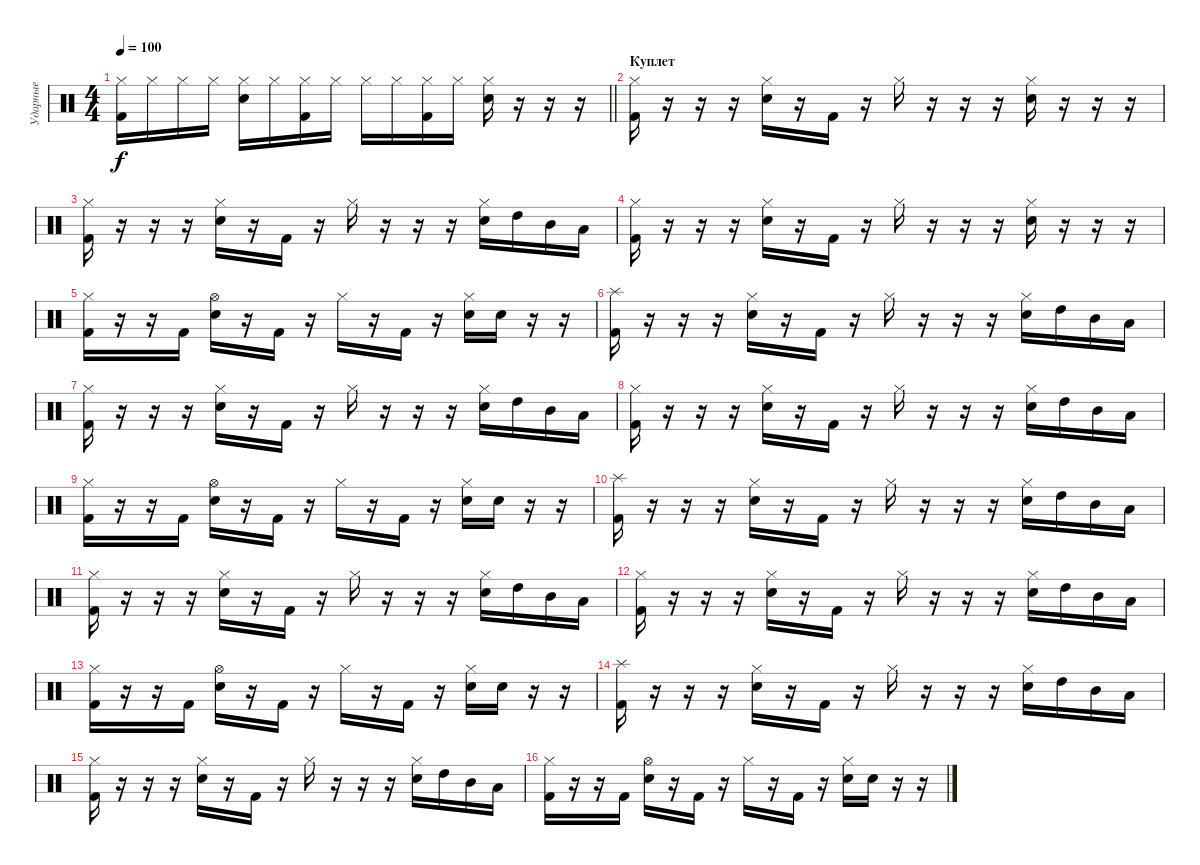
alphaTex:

\track ("Ударные" "Ударные") {instrument percussion}
\staff {score}
\articulation defaults
\ts (4 4)
\tempo 100
\clef neutral
\barLineRight lightlight
\ks c
("Hi-Hat (closed)" "Kick (hit) 2").16{dy f} "Hi-Hat (closed)".16 "Hi-Hat (closed)".16 "Hi-Hat (closed)".16 ("Hi-Hat (closed)" "Electric Snare (hit)").16 "Hi-Hat (closed)".16 ("Hi-Hat (closed)" "Kick (hit) 2").16 "Hi-Hat (closed)".16 "Hi-Hat (closed)".16 "Hi-Hat (closed)".16 ("Hi-Hat (closed)" "Kick (hit) 2").16 "Hi-Hat (closed)".16 ("Hi-Hat (closed)" "Electric Snare (hit)").16 r.16 r.16 r.16 |
\section ("" "Куплет")
("Hi-Hat (closed)" "Kick (hit) 2").16 r.16 r.16 r.16 ("Hi-Hat (closed)" "Electric Snare (hit)").16 r.16 "Kick (hit) 2".16 r.16 "Hi-Hat (closed)".16 r.16 r.16 r.16 ("Hi-Hat (closed)" "Electric Snare (hit)").16 r.16 r.16 r.16 |
("Hi-Hat (closed)" "Kick (hit) 2").16 r.16 r.16 r.16 ("Hi-Hat (closed)" "Electric Snare (hit)").16 r.16 "Kick (hit) 2".16 r.16 "Hi-Hat (closed)".16 r.16 r.16 r.16 ("Hi-Hat (closed)" "Electric Snare (hit)").16 "High Tom (hit)".16 "Mid Tom (hit)".16 "Low Tom (hit)".16 |
("Hi-Hat (closed)" "Kick (hit) 2").16 r.16 r.16 r.16 ("Hi-Hat (closed)" "Electric Snare (hit)").16 r.16 "Kick (hit) 2".16 r.16 "Hi-Hat (closed)".16 r.16 r.16 r.16 ("Hi-Hat (closed)" "Electric Snare (hit)").16 r.16 r.16 r.16 |
("Hi-Hat (closed)" "Kick (hit) 2").16 r.16 r.16 "Kick (hit) 2".16 ("Hi-Hat (open)" "Electric Snare (hit)").16 r.16 "Kick (hit) 2".16 r.16 "Hi-Hat (closed)".16 r.16 "Kick (hit) 2".16 r.16 ("Hi-Hat (closed)" "Electric Snare (hit)").16 "Electric Snare (hit)".16 r.16 r.16 |
("Splash (hit)" "Kick (hit) 2").16 r.16 r.16 r.16 ("Hi-Hat (closed)" "Electric Snare (hit)").16 r.16 "Kick (hit) 2".16 r.16 "Hi-Hat (closed)".16 r.16 r.16 r.16 ("Hi-Hat (closed)" "Electric Snare (hit)").16 "High Tom (hit)".16 "Mid Tom (hit)".16 "Low Tom (hit)".16 |
("Hi-Hat (closed)" "Kick (hit) 2").16 r.16 r.16 r.16 ("Hi-Hat (closed)" "Electric Snare (hit)").16 r.16 "Kick (hit) 2".16 r.16 "Hi-Hat (closed)".16 r.16 r.16 r.16 ("Hi-Hat (closed)" "Electric Snare (hit)").16 "High Tom (hit)".16 "Mid Tom (hit)".16 "Low Tom (hit)".16 |
("Hi-Hat (closed)" "Kick (hit) 2").16 r.16 r.16 r.16 ("Hi-Hat (closed)" "Electric Snare (hit)").16 r.16 "Kick (hit) 2".16 r.16 "Hi-Hat (closed)".16 r.16 r.16 r.16 ("Hi-Hat (closed)" "Electric Snare (hit)").16 "High Tom (hit)".16 "Mid Tom (hit)".16 "Low Tom (hit)".16 |
("Hi-Hat (closed)" "Kick (hit) 2").16 r.16 r.16 "Kick (hit) 2".16 ("Hi-Hat (open)" "Electric Snare (hit)").16 r.16 "Kick (hit) 2".16 r.16 "Hi-Hat (closed)".16 r.16 "Kick (hit) 2".16 r.16 ("Hi-Hat (closed)" "Electric Snare (hit)").16 "Electric Snare (hit)".16 r.16 r.16 |
("Splash (hit)" "Kick (hit) 2").16 r.16 r.16 r.16 ("Hi-Hat (closed)" "Electric Snare (hit)").16 r.16 "Kick (hit) 2".16 r.16 "Hi-Hat (closed)".16 r.16 r.16 r.16 ("Hi-Hat (closed)" "Electric Snare (hit)").16 "High Tom (hit)".16 "Mid Tom (hit)".16 "Low Tom (hit)".16 |
("Hi-Hat (closed)" "Kick (hit) 2").16 r.16 r.16 r.16 ("Hi-Hat (closed)" "Electric Snare (hit)").16 r.16 "Kick (hit) 2".16 r.16 "Hi-Hat (closed)".16 r.16 r.16 r.16 ("Hi-Hat (closed)" "Electric Snare (hit)").16 "High Tom (hit)".16 "Mid Tom (hit)".16 "Low Tom (hit)".16 |
("Hi-Hat (closed)" "Kick (hit) 2").16 r.16 r.16 r.16 ("Hi-Hat (closed)" "Electric Snare (hit)").16 r.16 "Kick (hit) 2".16 r.16 "Hi-Hat (closed)".16 r.16 r.16 r.16 ("Hi-Hat (closed)" "Electric Snare (hit)").16 "High Tom (hit)".16 "Mid Tom (hit)".16 "Low Tom (hit)".16 |
("Hi-Hat (closed)" "Kick (hit) 2").16 r.16 r.16 "Kick (hit) 2".16 ("Hi-Hat (open)" "Electric Snare (hit)").16 r.16 "Kick (hit) 2".16 r.16 "Hi-Hat (closed)".16 r.16 "Kick (hit) 2".16 r.16 ("Hi-Hat (closed)" "Electric Snare (hit)").16 "Electric Snare (hit)".16 r.16 r.16 |
("Splash (hit)" "Kick (hit) 2").16 r.16 r.16 r.16 ("Hi-Hat (closed)" "Electric Snare (hit)").16 r.16 "Kick (hit) 2".16 r.16 "Hi-Hat (closed)".16 r.16 r.16 r.16 ("Hi-Hat (closed)" "Electric Snare (hit)").16 "High Tom (hit)".16 "Mid Tom (hit)".16 "Low Tom (hit)".16 |
("Hi-Hat (closed)" "Kick (hit) 2").16 r.16 r.16 r.16 ("Hi-Hat (closed)" "Electric Snare (hit)").16 r.16 "Kick (hit) 2".16 r.16 "Hi-Hat (closed)".16 r.16 r.16 r.16 ("Hi-Hat (closed)" "Electric Snare (hit)").16 "High Tom (hit)".16 "Mid Tom (hit)".16 "Low Tom (hit)".16 |
("Hi-Hat (closed)" "Kick (hit) 2").16 r.16 r.16 "Kick (hit) 2".16 ("Hi-Hat (open)" "Electric Snare (hit)").16 r.16 "Kick (hit) 2".16 r.16 "Hi-Hat (closed)".16 r.16 "Kick (hit) 2".16 r.16 ("Hi-Hat (closed)" "Electric Snare (hit)").16 "Electric Snare (hit)".16 r.16 r.16
